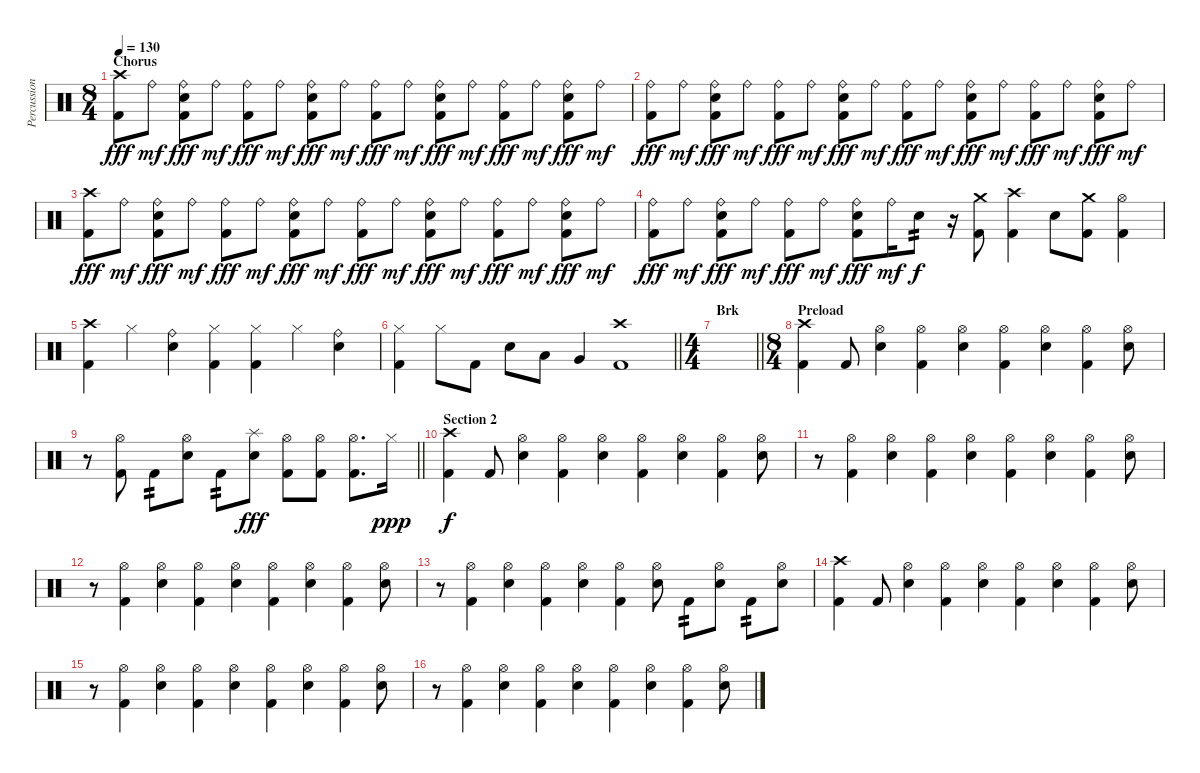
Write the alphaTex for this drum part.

\track ("Percussion" "Percussion") {instrument percussion}
\staff {score}
\articulation defaults
\ts (8 4)
\section ("" "Chorus")
\tempo 130
\clef neutral
\ks c
("Crash high (hit)" "Kick (hit) 2").8{dy fff} "Ride (bell)".8{dy mf} ("Ride (bell)" "Snare (hit) 2" "Kick (hit) 2").8{dy fff} "Ride (bell)".8{dy mf} ("Ride (bell)" "Kick (hit) 2").8{dy fff} "Ride (bell)".8{dy mf} ("Ride (bell)" "Snare (hit) 2" "Kick (hit) 2").8{dy fff} "Ride (bell)".8{dy mf} ("Ride (bell)" "Kick (hit) 2").8{dy fff} "Ride (bell)".8{dy mf} ("Ride (bell)" "Snare (hit) 2" "Kick (hit) 2").8{dy fff} "Ride (bell)".8{dy mf} ("Ride (bell)" "Kick (hit) 2").8{dy fff} "Ride (bell)".8{dy mf} ("Ride (bell)" "Snare (hit) 2" "Kick (hit) 2").8{dy fff} "Ride (bell)".8{dy mf} |
("Ride (bell)" "Kick (hit) 2").8{dy fff} "Ride (bell)".8{dy mf} ("Ride (bell)" "Snare (hit) 2" "Kick (hit) 2").8{dy fff} "Ride (bell)".8{dy mf} ("Ride (bell)" "Kick (hit) 2").8{dy fff} "Ride (bell)".8{dy mf} ("Ride (bell)" "Snare (hit) 2" "Kick (hit) 2").8{dy fff} "Ride (bell)".8{dy mf} ("Ride (bell)" "Kick (hit) 2").8{dy fff} "Ride (bell)".8{dy mf} ("Ride (bell)" "Snare (hit) 2" "Kick (hit) 2").8{dy fff} "Ride (bell)".8{dy mf} ("Ride (bell)" "Kick (hit) 2").8{dy fff} "Ride (bell)".8{dy mf} ("Ride (bell)" "Snare (hit) 2" "Kick (hit) 2").8{dy fff} "Ride (bell)".8{dy mf} |
("Crash high (hit)" "Kick (hit) 2").8{dy fff} "Ride (bell)".8{dy mf} ("Ride (bell)" "Snare (hit) 2" "Kick (hit) 2").8{dy fff} "Ride (bell)".8{dy mf} ("Ride (bell)" "Kick (hit) 2").8{dy fff} "Ride (bell)".8{dy mf} ("Ride (bell)" "Snare (hit) 2" "Kick (hit) 2").8{dy fff} "Ride (bell)".8{dy mf} ("Ride (bell)" "Kick (hit) 2").8{dy fff} "Ride (bell)".8{dy mf} ("Ride (bell)" "Snare (hit) 2" "Kick (hit) 2").8{dy fff} "Ride (bell)".8{dy mf} ("Ride (bell)" "Kick (hit) 2").8{dy fff} "Ride (bell)".8{dy mf} ("Ride (bell)" "Snare (hit) 2" "Kick (hit) 2").8{dy fff} "Ride (bell)".8{dy mf} |
("Ride (bell)" "Kick (hit) 2").8{dy fff} "Ride (bell)".8{dy mf} ("Ride (bell)" "Snare (hit) 2" "Kick (hit) 2").8{dy fff} "Ride (bell)".8{dy mf} ("Ride (bell)" "Kick (hit) 2").8{dy fff} "Ride (bell)".8{dy mf} ("Ride (bell)" "Snare (hit) 2" "Kick (hit) 2").8{dy fff} "Ride (bell)".16{dy mf} "Snare (hit) 2".8{tp 2 dy f} r.16 ("Crash medium (hit)" "Kick (hit) 2").8 ("Crash high (hit)" "Kick (hit) 2").4 "Snare (hit) 2".8 ("Crash medium (hit)" "Kick (hit) 2").8 ("Hi-Hat (open)" "Kick (hit) 2").4 |
("Crash high (hit)" "Kick (hit) 2").4 "Hi-Hat (closed)".4 ("Ride (bell)" "Snare (hit) 2").4 ("Hi-Hat (closed)" "Kick (hit) 2").4 ("Hi-Hat (closed)" "Kick (hit) 2").4 "Hi-Hat (closed)".4 ("Ride (bell)" "Snare (hit) 2").4 |
\barLineRight lightlight
("Hi-Hat (closed)" "Kick (hit) 2").4 "Hi-Hat (closed)".8 "Kick (hit) 2".8 "Snare (hit) 2".8 "Low Tom (hit)".8 "Very Low Tom (hit)".4 ("Crash high (hit)" "Kick (hit) 2").1 |
\ts (4 4)
\section ("" "Brk")
\barLineRight lightlight
|
\ts (8 4)
\section ("" "Preload")
("Crash high (hit)" "Kick (hit) 2").4 "Kick (hit) 2".8 ("Hi-Hat (open)" "Snare (hit) 2").4 ("Hi-Hat (open)" "Kick (hit) 2").4 ("Hi-Hat (open)" "Snare (hit) 2").4 ("Hi-Hat (open)" "Kick (hit) 2").4 ("Hi-Hat (open)" "Snare (hit) 2").4 ("Hi-Hat (open)" "Kick (hit) 2").4 ("Hi-Hat (open)" "Snare (hit) 2").8 |
\barLineRight lightlight
r.8 ("Hi-Hat (open)" "Kick (hit) 2").8 "Kick (hit) 2".8{tp 2} ("Hi-Hat (open)" "Snare (hit) 2").8 "Kick (hit) 2".8{tp 2} ("Splash (hit)" "Snare (hit) 2").8{dy fff} ("Hi-Hat (open)" "Kick (hit) 2").8 ("Hi-Hat (open)" "Kick (hit) 2").8 ("Hi-Hat (open)" "Kick (hit) 2").8{d} "Hi-Hat (closed)".16{dy ppp} |
\section ("" "Section 2")
("Crash high (hit)" "Kick (hit) 2").4{dy f} "Kick (hit) 2".8 ("Hi-Hat (open)" "Snare (hit) 2").4 ("Hi-Hat (open)" "Kick (hit) 2").4 ("Hi-Hat (open)" "Snare (hit) 2").4 ("Hi-Hat (open)" "Kick (hit) 2").4 ("Hi-Hat (open)" "Snare (hit) 2").4 ("Hi-Hat (open)" "Kick (hit) 2").4 ("Hi-Hat (open)" "Snare (hit) 2").8 |
r.8 ("Hi-Hat (open)" "Kick (hit) 2").4 ("Hi-Hat (open)" "Snare (hit) 2").4 ("Hi-Hat (open)" "Kick (hit) 2").4 ("Hi-Hat (open)" "Snare (hit) 2").4 ("Hi-Hat (open)" "Kick (hit) 2").4 ("Hi-Hat (open)" "Snare (hit) 2").4 ("Hi-Hat (open)" "Kick (hit) 2").4 ("Hi-Hat (open)" "Snare (hit) 2").8 |
r.8 ("Hi-Hat (open)" "Kick (hit) 2").4 ("Hi-Hat (open)" "Snare (hit) 2").4 ("Hi-Hat (open)" "Kick (hit) 2").4 ("Hi-Hat (open)" "Snare (hit) 2").4 ("Hi-Hat (open)" "Kick (hit) 2").4 ("Hi-Hat (open)" "Snare (hit) 2").4 ("Hi-Hat (open)" "Kick (hit) 2").4 ("Hi-Hat (open)" "Snare (hit) 2").8 |
r.8 ("Hi-Hat (open)" "Kick (hit) 2").4 ("Hi-Hat (open)" "Snare (hit) 2").4 ("Hi-Hat (open)" "Kick (hit) 2").4 ("Hi-Hat (open)" "Snare (hit) 2").4 ("Hi-Hat (open)" "Kick (hit) 2").4 ("Hi-Hat (open)" "Snare (hit) 2").8 "Kick (hit) 2".8{tp 2} ("Hi-Hat (open)" "Snare (hit) 2").8 "Kick (hit) 2".8{tp 2} ("Hi-Hat (open)" "Snare (hit) 2").8 |
("Crash high (hit)" "Kick (hit) 2").4 "Kick (hit) 2".8 ("Hi-Hat (open)" "Snare (hit) 2").4 ("Hi-Hat (open)" "Kick (hit) 2").4 ("Hi-Hat (open)" "Snare (hit) 2").4 ("Hi-Hat (open)" "Kick (hit) 2").4 ("Hi-Hat (open)" "Snare (hit) 2").4 ("Hi-Hat (open)" "Kick (hit) 2").4 ("Hi-Hat (open)" "Snare (hit) 2").8 |
r.8 ("Hi-Hat (open)" "Kick (hit) 2").4 ("Hi-Hat (open)" "Snare (hit) 2").4 ("Hi-Hat (open)" "Kick (hit) 2").4 ("Hi-Hat (open)" "Snare (hit) 2").4 ("Hi-Hat (open)" "Kick (hit) 2").4 ("Hi-Hat (open)" "Snare (hit) 2").4 ("Hi-Hat (open)" "Kick (hit) 2").4 ("Hi-Hat (open)" "Snare (hit) 2").8 |
r.8 ("Hi-Hat (open)" "Kick (hit) 2").4 ("Hi-Hat (open)" "Snare (hit) 2").4 ("Hi-Hat (open)" "Kick (hit) 2").4 ("Hi-Hat (open)" "Snare (hit) 2").4 ("Hi-Hat (open)" "Kick (hit) 2").4 ("Hi-Hat (open)" "Snare (hit) 2").4 ("Hi-Hat (open)" "Kick (hit) 2").4 ("Hi-Hat (open)" "Snare (hit) 2").8
